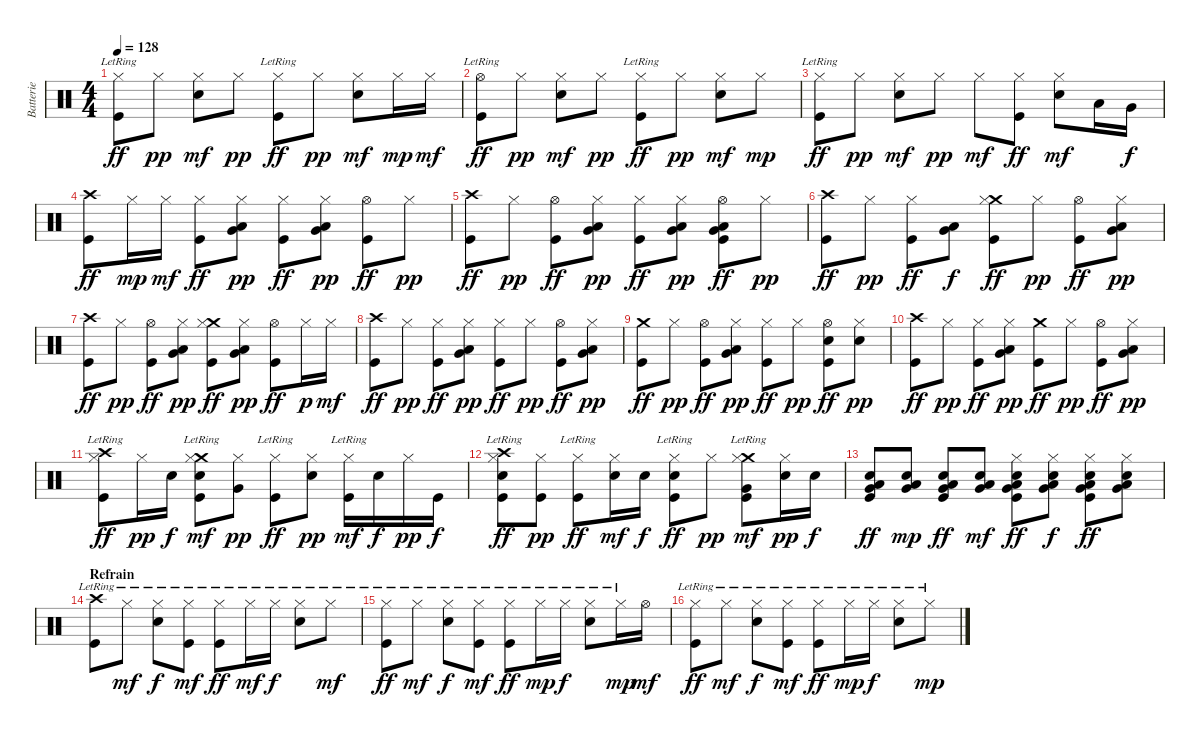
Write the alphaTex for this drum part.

\track ("Batterie" "Batterie") {instrument percussion}
\staff {score}
\articulation defaults
\ts (4 4)
\tempo 128
\clef neutral
\ks c
("Hi-Hat (closed)" "Kick (hit)"{lr}).8{dy ff} "Hi-Hat (closed)".8{dy pp} ("Hi-Hat (closed)" "Snare (hit) 2").8{dy mf} "Hi-Hat (closed)".8{dy pp} ("Hi-Hat (closed)" "Kick (hit)"{lr}).8{dy ff} "Hi-Hat (closed)".8{dy pp} ("Hi-Hat (closed)" "Snare (hit) 2").8{dy mf} "Hi-Hat (closed)".16{dy mp} "Hi-Hat (closed)".16{dy mf} |
("Hi-Hat (open)" "Kick (hit)"{lr}).8{dy ff} "Hi-Hat (closed)".8{dy pp} ("Hi-Hat (closed)" "Snare (hit) 2").8{dy mf} "Hi-Hat (closed)".8{dy pp} ("Hi-Hat (closed)" "Kick (hit)"{lr}).8{dy ff} "Hi-Hat (closed)".8{dy pp} ("Hi-Hat (closed)" "Snare (hit) 2").8{dy mf} "Hi-Hat (closed)".8{dy mp} |
("Hi-Hat (closed)" "Kick (hit)"{lr}).8{dy ff} "Hi-Hat (closed)".8{dy pp} ("Hi-Hat (closed)" "Snare (hit) 2").8{dy mf} "Hi-Hat (closed)".8{dy pp} "Hi-Hat (closed)".8{dy mf} ("Hi-Hat (closed)" "Kick (hit)").8{dy ff} ("Hi-Hat (closed)" "Snare (hit) 2").8{dy mf} "Low Tom (hit)".16 "Very Low Tom (hit)".16{dy f} |
("Crash high (hit)" "Kick (hit)").8{dy ff} "Hi-Hat (closed)".16{dy mp} "Hi-Hat (closed)".16{dy mf} ("Hi-Hat (closed)" "Kick (hit)").8{dy ff} ("Very Low Tom (hit)" "Low Tom (hit)" "Hi-Hat (closed)").8{dy pp} ("Hi-Hat (closed)" "Kick (hit)").8{dy ff} ("Low Floor Tom (hit)" "Very Low Tom (hit)" "Hi-Hat (closed)").8{dy pp} ("Hi-Hat (open)" "Kick (hit)").8{dy ff} "Hi-Hat (closed)".8{dy pp} |
("Crash high (hit)" "Kick (hit)").8{dy ff} "Hi-Hat (closed)".8{dy pp} ("Hi-Hat (open)" "Kick (hit)").8{dy ff} ("Very Low Tom (hit)" "Low Tom (hit)" "Hi-Hat (closed)").8{dy pp} ("Hi-Hat (closed)" "Kick (hit)").8{dy ff} ("Low Floor Tom (hit)" "Very Low Tom (hit)" "Hi-Hat (closed)").8{dy pp} ("Very Low Tom (hit)" "Low Tom (hit)" "Hi-Hat (open)" "Kick (hit)").8{dy ff} "Hi-Hat (closed)".8{dy pp} |
("Crash high (hit)" "Kick (hit)").8{dy ff} "Hi-Hat (closed)".8{dy pp} ("Hi-Hat (closed)" "Kick (hit)").8{dy ff} ("Very Low Tom (hit)" "Low Tom (hit)").8{dy f} ("Crash medium (hit)" "Hi-Hat (closed)" "Kick (hit)").8{dy ff} "Hi-Hat (closed)".8{dy pp} ("Hi-Hat (open)" "Kick (hit)").8{dy ff} ("Low Floor Tom (hit)" "Very Low Tom (hit)" "Hi-Hat (closed)").8{dy pp} |
("Crash high (hit)" "Kick (hit)").8{dy ff} "Hi-Hat (closed)".8{dy pp} ("Hi-Hat (open)" "Kick (hit)").8{dy ff} ("Very Low Tom (hit)" "Low Tom (hit)" "Hi-Hat (closed)").8{dy pp} ("Crash medium (hit)" "Hi-Hat (closed)" "Kick (hit)").8{dy ff} ("Low Floor Tom (hit)" "Very Low Tom (hit)" "Hi-Hat (closed)").8{dy pp} ("Hi-Hat (open)" "Kick (hit)").8{dy ff} "Hi-Hat (closed)".16{dy p} "Hi-Hat (closed)".16{dy mf} |
("Crash high (hit)" "Kick (hit)").8{dy ff} "Hi-Hat (closed)".8{dy pp} ("Hi-Hat (closed)" "Kick (hit)").8{dy ff} ("Very Low Tom (hit)" "Low Tom (hit)" "Hi-Hat (closed)").8{dy pp} ("Hi-Hat (closed)" "Kick (hit)").8{dy ff} "Hi-Hat (closed)".8{dy pp} ("Hi-Hat (open)" "Kick (hit)").8{dy ff} ("Low Floor Tom (hit)" "Very Low Tom (hit)" "Hi-Hat (closed)").8{dy pp} |
("Crash medium (hit)" "Kick (hit)").8{dy ff} "Hi-Hat (closed)".8{dy pp} ("Hi-Hat (open)" "Kick (hit)").8{dy ff} ("Very Low Tom (hit)" "Low Tom (hit)" "Hi-Hat (closed)").8{dy pp} ("Hi-Hat (closed)" "Kick (hit)").8{dy ff} "Hi-Hat (closed)".8{dy pp} ("Hi-Hat (open)" "Snare (hit) 2" "Kick (hit)").8{dy ff} ("Hi-Hat (closed)" "Snare (hit) 2").8{dy pp} |
("Crash high (hit)" "Kick (hit)").8{dy ff} "Hi-Hat (closed)".8{dy pp} ("Hi-Hat (closed)" "Kick (hit)").8{dy ff} ("Very Low Tom (hit)" "Low Tom (hit)" "Hi-Hat (closed)").8{dy pp} ("Crash medium (hit)" "Kick (hit)").8{dy ff} "Hi-Hat (closed)".8{dy pp} ("Hi-Hat (open)" "Kick (hit)").8{dy ff} ("Low Floor Tom (hit)" "Very Low Tom (hit)" "Hi-Hat (closed)").8{dy pp} |
("Crash high (hit)" "Hi-Hat (closed)" "Kick (hit)"{lr}).8{dy ff} "Hi-Hat (closed)".16{dy pp} "Snare (hit) 2".16{dy f} ("Crash medium (hit)" "Hi-Hat (closed)" "Snare (hit) 2" "Kick (hit)"{lr}).8{dy mf} ("Very Low Tom (hit)" "Hi-Hat (closed)").8{dy pp} ("Hi-Hat (closed)" "Kick (hit)"{lr}).8{dy ff} ("Hi-Hat (closed)" "Snare (hit) 2").8{dy pp} ("Hi-Hat (closed)" "Kick (hit)"{lr}).16{dy mf} "Snare (hit) 2".16{dy f} "Hi-Hat (closed)".16{dy pp} "Kick (hit)".16{dy f} |
("Crash high (hit)" "Hi-Hat (closed)" "Snare (hit) 2" "Kick (hit)"{lr}).8{dy ff} ("Hi-Hat (closed)" "Kick (hit)").8{dy pp} ("Hi-Hat (closed)" "Kick (hit)"{lr}).8{dy ff} ("Hi-Hat (closed)" "Snare (hit) 2").16{dy mf} "Snare (hit) 2".16{dy f} ("Hi-Hat (closed)" "Snare (hit) 2" "Kick (hit)"{lr}).8{dy ff} "Hi-Hat (closed)".8{dy pp} ("Very Low Tom (hit)" "Crash medium (hit)" "Hi-Hat (closed)" "Kick (hit)"{lr}).8{dy mf} ("Hi-Hat (closed)" "Snare (hit) 2").16{dy pp} "Snare (hit) 2".16{dy f} |
("Very Low Tom (hit)" "Low Floor Tom (hit)" "Snare (hit) 2" "Kick (hit)").8{dy ff} ("Very Low Tom (hit)" "Low Floor Tom (hit)" "Snare (hit) 2").8{dy mp} ("Very Low Tom (hit)" "Low Floor Tom (hit)" "Snare (hit) 2" "Kick (hit)").8{dy ff} ("Very Low Tom (hit)" "Low Floor Tom (hit)" "Snare (hit) 2").8{dy mf} ("Very Low Tom (hit)" "Low Floor Tom (hit)" "Hi-Hat (closed)" "Snare (hit) 2" "Kick (hit)").8{dy ff} ("Very Low Tom (hit)" "Low Floor Tom (hit)" "Hi-Hat (closed)" "Snare (hit) 2").8{dy f} ("Very Low Tom (hit)" "Low Floor Tom (hit)" "Hi-Hat (closed)" "Snare (hit) 2" "Kick (hit)").8{dy ff} ("Very Low Tom (hit)" "Low Floor Tom (hit)" "Hi-Hat (closed)" "Snare (hit) 2").8 |
\section ("" "Refrain")
("Crash high (hit)"{lr} "Kick (hit)"{lr}).8 "Hi-Hat (closed)"{lr}.8{dy mf} ("Hi-Hat (closed)"{lr} "Snare (hit) 2"{lr}).8{dy f} ("Hi-Hat (closed)"{lr} "Kick (hit)"{lr}).8{dy mf} ("Hi-Hat (closed)"{lr} "Kick (hit)"{lr}).8{dy ff} "Hi-Hat (closed)"{lr}.16{dy mf} "Hi-Hat (closed)"{lr}.16{dy f} ("Hi-Hat (closed)"{lr} "Snare (hit) 2"{lr}).8 "Hi-Hat (closed)"{lr}.8{dy mf} |
("Hi-Hat (closed)"{lr} "Kick (hit)"{lr}).8{dy ff} "Hi-Hat (closed)"{lr}.8{dy mf} ("Hi-Hat (closed)"{lr} "Snare (hit) 2"{lr}).8{dy f} ("Hi-Hat (closed)"{lr} "Kick (hit)"{lr}).8{dy mf} ("Hi-Hat (closed)"{lr} "Kick (hit)"{lr}).8{dy ff} "Hi-Hat (closed)"{lr}.16{dy mp} "Hi-Hat (closed)"{lr}.16{dy f} ("Hi-Hat (closed)"{lr} "Snare (hit) 2"{lr}).8 "Hi-Hat (closed)"{lr}.16{dy mp} "Hi-Hat (open)".16{dy mf} |
("Hi-Hat (closed)"{lr} "Kick (hit)"{lr}).8{dy ff} "Hi-Hat (closed)"{lr}.8{dy mf} ("Hi-Hat (closed)"{lr} "Snare (hit) 2"{lr}).8{dy f} ("Hi-Hat (closed)"{lr} "Kick (hit)"{lr}).8{dy mf} ("Hi-Hat (closed)"{lr} "Kick (hit)"{lr}).8{dy ff} "Hi-Hat (closed)"{lr}.16{dy mp} "Hi-Hat (closed)"{lr}.16{dy f} ("Hi-Hat (closed)"{lr} "Snare (hit) 2"{lr}).8 "Hi-Hat (closed)"{lr}.8{dy mp}
